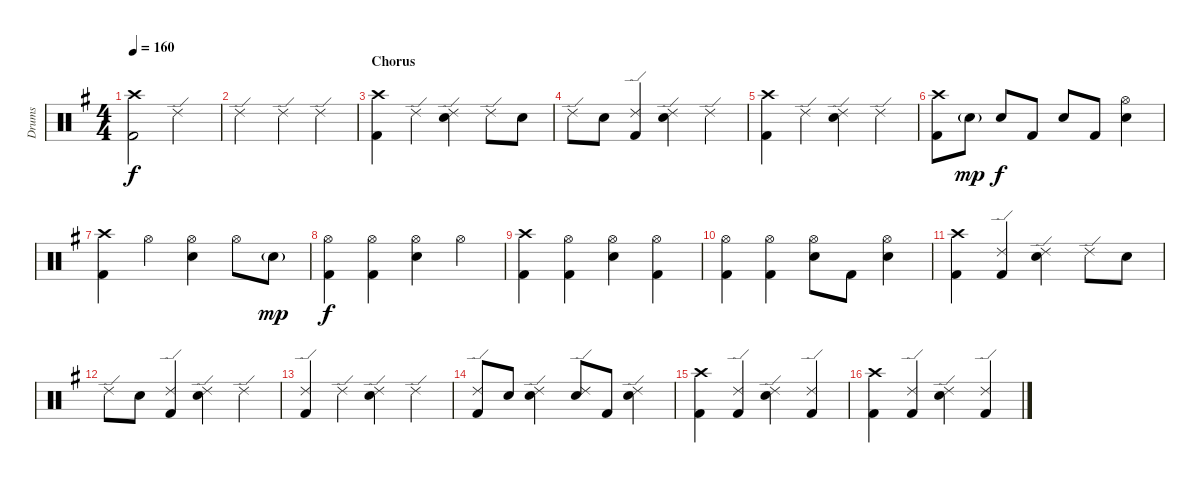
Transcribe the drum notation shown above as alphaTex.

\track ("Drums" "Drums") {instrument percussion}
\staff {score}
\articulation defaults
\ts (4 4)
\tempo 160
\clef neutral
\ks g
("Crash high (hit)" "Kick (hit) 2").2{dy f} "Ride (edge) 2".2 |
"Ride (edge) 2".2 "Ride (edge) 2".4 "Ride (edge) 2".4 |
\section ("" "Chorus")
("Crash high (hit)" "Kick (hit) 2").4 "Ride (edge) 2".4 ("Ride (edge) 2" "Electric Snare (hit)").4 "Ride (edge) 2".8 "Electric Snare (hit)".8 |
"Ride (edge) 2".8 "Electric Snare (hit)".8 ("Ride (edge) 2" "Kick (hit) 2").4 ("Ride (edge) 2" "Electric Snare (hit)").4 "Ride (edge) 2".4 |
("Crash high (hit)" "Kick (hit) 2").4 "Ride (edge) 2".4 ("Ride (edge) 2" "Electric Snare (hit)").4 "Ride (edge) 2".4 |
("Crash high (hit)" "Kick (hit) 2").8 "Electric Snare (hit)"{g}.8{dy mp} "Electric Snare (hit)".8{dy f} "Kick (hit) 2".8 "Electric Snare (hit)".8 "Kick (hit) 2".8 ("Hi-Hat (open)" "Electric Snare (hit)").4 |
("Crash high (hit)" "Kick (hit) 2").4 "Hi-Hat (open)".4 ("Hi-Hat (open)" "Electric Snare (hit)").4 "Hi-Hat (open)".8 "Electric Snare (hit)"{g}.8{dy mp} |
("Hi-Hat (open)" "Kick (hit) 2").4{dy f} ("Hi-Hat (open)" "Kick (hit) 2").4 ("Hi-Hat (open)" "Electric Snare (hit)").4 "Hi-Hat (open)".4 |
("Crash high (hit)" "Kick (hit) 2").4 ("Hi-Hat (open)" "Kick (hit) 2").4 ("Hi-Hat (open)" "Electric Snare (hit)").4 ("Hi-Hat (open)" "Kick (hit) 2").4 |
("Hi-Hat (open)" "Kick (hit) 2").4 ("Hi-Hat (open)" "Kick (hit) 2").4 ("Hi-Hat (open)" "Electric Snare (hit)").8 "Kick (hit) 2".8 ("Hi-Hat (open)" "Electric Snare (hit)").4 |
("Crash high (hit)" "Kick (hit) 2").4 ("Ride (edge) 2" "Kick (hit) 2").4 ("Ride (edge) 2" "Electric Snare (hit)").4 "Ride (edge) 2".8 "Electric Snare (hit)".8 |
"Ride (edge) 2".8 "Electric Snare (hit)".8 ("Ride (edge) 2" "Kick (hit) 2").4 ("Ride (edge) 2" "Electric Snare (hit)").4 "Ride (edge) 2".4 |
("Ride (edge) 2" "Kick (hit) 2").4 "Ride (edge) 2".4 ("Ride (edge) 2" "Electric Snare (hit)").4 "Ride (edge) 2".4 |
("Ride (edge) 2" "Kick (hit) 2").8 "Electric Snare (hit)".8 ("Ride (edge) 2" "Electric Snare (hit)").4 ("Ride (edge) 2" "Electric Snare (hit)").8 "Kick (hit) 2".8 ("Ride (edge) 2" "Electric Snare (hit)").4 |
("Crash high (hit)" "Kick (hit) 2").4 ("Ride (edge) 2" "Kick (hit) 2").4 ("Ride (edge) 2" "Electric Snare (hit)").4 ("Ride (edge) 2" "Kick (hit) 2").4 |
("Crash high (hit)" "Kick (hit) 2").4 ("Ride (edge) 2" "Kick (hit) 2").4 ("Ride (edge) 2" "Electric Snare (hit)").4 ("Ride (edge) 2" "Kick (hit) 2").4
